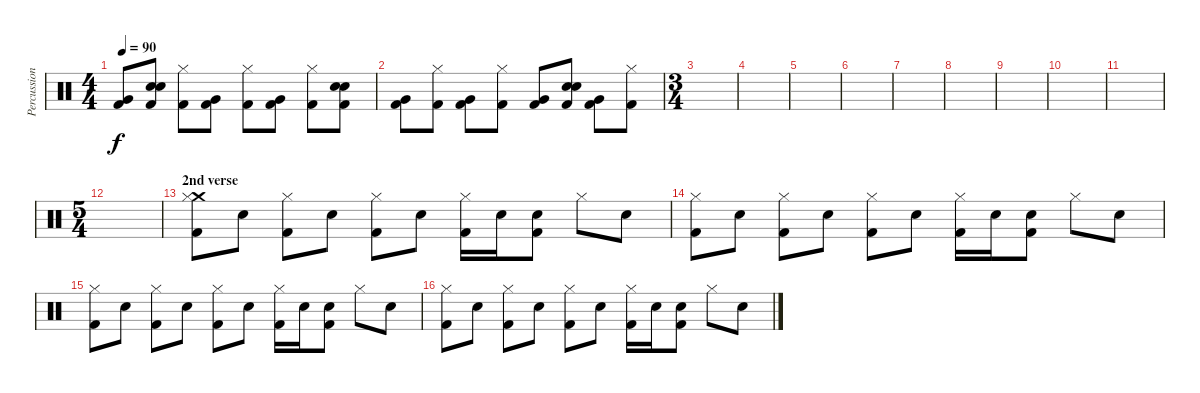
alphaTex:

\track ("Percussion" "Percussion") {instrument percussion}
\staff {score}
\articulation defaults
\ts (4 4)
\tempo 90
\clef neutral
\ks c
("Very Low Tom (hit)" "Kick (hit) 2").8{dy f} ("Electric Snare (hit)" "Snare (hit) 2" "Kick (hit) 2").8 ("Hi-Hat (closed)" "Kick (hit) 2").8 ("Very Low Tom (hit)" "Kick (hit) 2").8 ("Hi-Hat (closed)" "Kick (hit) 2").8 ("Very Low Tom (hit)" "Kick (hit) 2").8 ("Hi-Hat (closed)" "Kick (hit) 2").8 ("Electric Snare (hit)" "Snare (hit) 2" "Kick (hit) 2").8 |
("Very Low Tom (hit)" "Kick (hit) 2").8 ("Hi-Hat (closed)" "Kick (hit) 2").8 ("Very Low Tom (hit)" "Kick (hit) 2").8 ("Hi-Hat (closed)" "Kick (hit) 2").8 ("Very Low Tom (hit)" "Kick (hit) 2").8 ("Electric Snare (hit)" "Snare (hit) 2" "Kick (hit) 2").8 ("Very Low Tom (hit)" "Kick (hit) 2").8 ("Hi-Hat (closed)" "Kick (hit) 2").8 |
\ts (3 4)
|
|
|
|
|
|
|
|
|
\ts (5 4)
|
\section ("" "2nd verse")
("Crash medium (hit)" "Hi-Hat (closed)" "Kick (hit) 2").8 "Snare (hit) 2".8 ("Hi-Hat (closed)" "Kick (hit) 2").8 "Snare (hit) 2".8 ("Hi-Hat (closed)" "Kick (hit) 2").8 "Snare (hit) 2".8 ("Hi-Hat (closed)" "Kick (hit) 2").16 "Snare (hit) 2".16 ("Snare (hit) 2" "Kick (hit) 2").8 "Hi-Hat (closed)".8 "Snare (hit) 2".8 |
("Hi-Hat (closed)" "Kick (hit) 2").8 "Snare (hit) 2".8 ("Hi-Hat (closed)" "Kick (hit) 2").8 "Snare (hit) 2".8 ("Hi-Hat (closed)" "Kick (hit) 2").8 "Snare (hit) 2".8 ("Hi-Hat (closed)" "Kick (hit) 2").16 "Snare (hit) 2".16 ("Snare (hit) 2" "Kick (hit) 2").8 "Hi-Hat (closed)".8 "Snare (hit) 2".8 |
("Hi-Hat (closed)" "Kick (hit) 2").8 "Snare (hit) 2".8 ("Hi-Hat (closed)" "Kick (hit) 2").8 "Snare (hit) 2".8 ("Hi-Hat (closed)" "Kick (hit) 2").8 "Snare (hit) 2".8 ("Hi-Hat (closed)" "Kick (hit) 2").16 "Snare (hit) 2".16 ("Snare (hit) 2" "Kick (hit) 2").8 "Hi-Hat (closed)".8 "Snare (hit) 2".8 |
("Hi-Hat (closed)" "Kick (hit) 2").8 "Snare (hit) 2".8 ("Hi-Hat (closed)" "Kick (hit) 2").8 "Snare (hit) 2".8 ("Hi-Hat (closed)" "Kick (hit) 2").8 "Snare (hit) 2".8 ("Hi-Hat (closed)" "Kick (hit) 2").16 "Snare (hit) 2".16 ("Snare (hit) 2" "Kick (hit) 2").8 "Hi-Hat (closed)".8 "Snare (hit) 2".8
